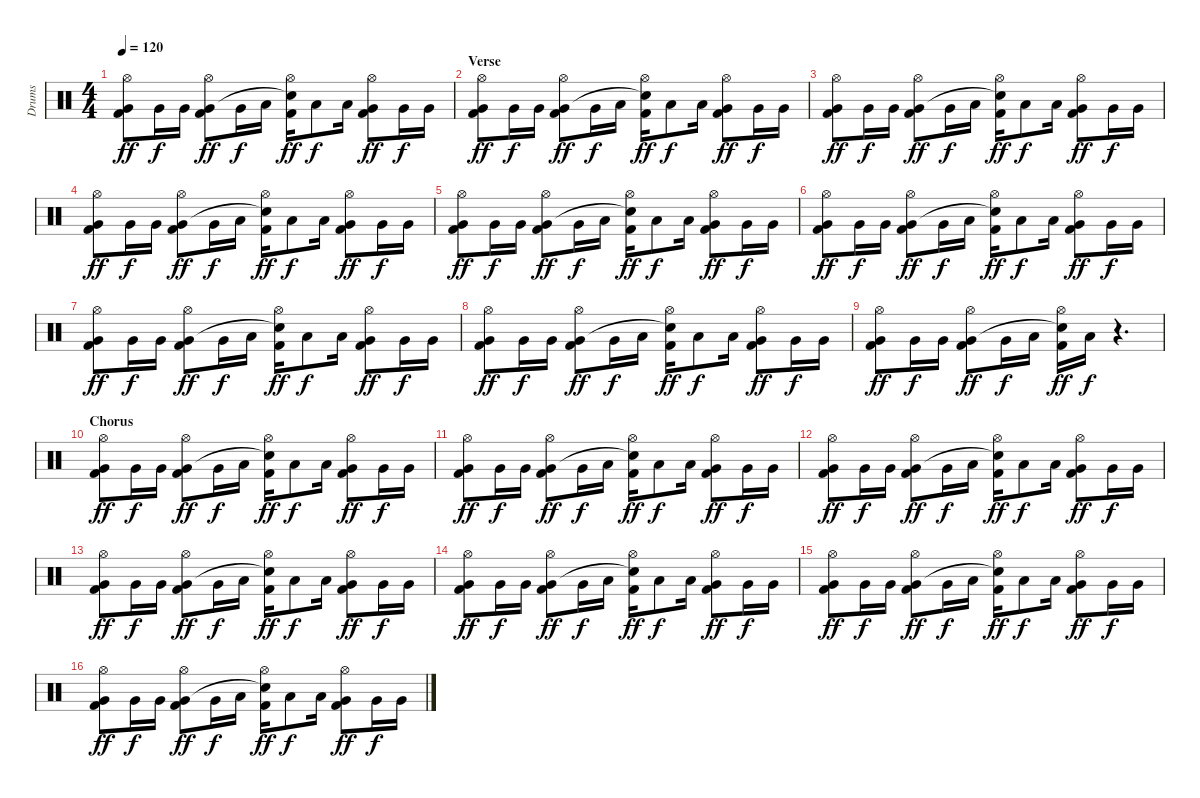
\track ("Drums" "Drums") {instrument percussion}
\staff {score}
\articulation defaults
\ts (4 4)
\tempo 120
\clef neutral
\ks c
("Hi-Hat (open)" "Very Low Tom (hit)" "Kick (hit) 2").8{dy ff} "Very Low Tom (hit)".16{dy f} "Very Low Tom (hit)".16 ("Hi-Hat (open)" "Very Low Tom (hit)" "Kick (hit) 2").8{dy ff} "Very Low Tom (hit)".16{dy f} "Low Tom (hit)".16 ("Hi-Hat (open)" "Snare (hit)"{t} "Kick (hit) 2").16{dy ff} "Low Tom (hit)".8{dy f} "Low Tom (hit)".16 ("Hi-Hat (open)" "Very Low Tom (hit)" "Kick (hit) 2").8{dy ff} "Very Low Tom (hit)".16{dy f} "Very Low Tom (hit)".16 |
\section ("" "Verse")
("Hi-Hat (open)" "Very Low Tom (hit)" "Kick (hit) 2").8{dy ff} "Very Low Tom (hit)".16{dy f} "Very Low Tom (hit)".16 ("Hi-Hat (open)" "Very Low Tom (hit)" "Kick (hit) 2").8{dy ff} "Very Low Tom (hit)".16{dy f} "Low Tom (hit)".16 ("Hi-Hat (open)" "Snare (hit)"{t} "Kick (hit) 2").16{dy ff} "Low Tom (hit)".8{dy f} "Low Tom (hit)".16 ("Hi-Hat (open)" "Very Low Tom (hit)" "Kick (hit) 2").8{dy ff} "Very Low Tom (hit)".16{dy f} "Very Low Tom (hit)".16 |
("Hi-Hat (open)" "Very Low Tom (hit)" "Kick (hit) 2").8{dy ff} "Very Low Tom (hit)".16{dy f} "Very Low Tom (hit)".16 ("Hi-Hat (open)" "Very Low Tom (hit)" "Kick (hit) 2").8{dy ff} "Very Low Tom (hit)".16{dy f} "Low Tom (hit)".16 ("Hi-Hat (open)" "Snare (hit)"{t} "Kick (hit) 2").16{dy ff} "Low Tom (hit)".8{dy f} "Low Tom (hit)".16 ("Hi-Hat (open)" "Very Low Tom (hit)" "Kick (hit) 2").8{dy ff} "Very Low Tom (hit)".16{dy f} "Very Low Tom (hit)".16 |
("Hi-Hat (open)" "Very Low Tom (hit)" "Kick (hit) 2").8{dy ff} "Very Low Tom (hit)".16{dy f} "Very Low Tom (hit)".16 ("Hi-Hat (open)" "Very Low Tom (hit)" "Kick (hit) 2").8{dy ff} "Very Low Tom (hit)".16{dy f} "Low Tom (hit)".16 ("Hi-Hat (open)" "Snare (hit)"{t} "Kick (hit) 2").16{dy ff} "Low Tom (hit)".8{dy f} "Low Tom (hit)".16 ("Hi-Hat (open)" "Very Low Tom (hit)" "Kick (hit) 2").8{dy ff} "Very Low Tom (hit)".16{dy f} "Very Low Tom (hit)".16 |
("Hi-Hat (open)" "Very Low Tom (hit)" "Kick (hit) 2").8{dy ff} "Very Low Tom (hit)".16{dy f} "Very Low Tom (hit)".16 ("Hi-Hat (open)" "Very Low Tom (hit)" "Kick (hit) 2").8{dy ff} "Very Low Tom (hit)".16{dy f} "Low Tom (hit)".16 ("Hi-Hat (open)" "Snare (hit)"{t} "Kick (hit) 2").16{dy ff} "Low Tom (hit)".8{dy f} "Low Tom (hit)".16 ("Hi-Hat (open)" "Very Low Tom (hit)" "Kick (hit) 2").8{dy ff} "Very Low Tom (hit)".16{dy f} "Very Low Tom (hit)".16 |
("Hi-Hat (open)" "Very Low Tom (hit)" "Kick (hit) 2").8{dy ff} "Very Low Tom (hit)".16{dy f} "Very Low Tom (hit)".16 ("Hi-Hat (open)" "Very Low Tom (hit)" "Kick (hit) 2").8{dy ff} "Very Low Tom (hit)".16{dy f} "Low Tom (hit)".16 ("Hi-Hat (open)" "Snare (hit)"{t} "Kick (hit) 2").16{dy ff} "Low Tom (hit)".8{dy f} "Low Tom (hit)".16 ("Hi-Hat (open)" "Very Low Tom (hit)" "Kick (hit) 2").8{dy ff} "Very Low Tom (hit)".16{dy f} "Very Low Tom (hit)".16 |
("Hi-Hat (open)" "Very Low Tom (hit)" "Kick (hit) 2").8{dy ff} "Very Low Tom (hit)".16{dy f} "Very Low Tom (hit)".16 ("Hi-Hat (open)" "Very Low Tom (hit)" "Kick (hit) 2").8{dy ff} "Very Low Tom (hit)".16{dy f} "Low Tom (hit)".16 ("Hi-Hat (open)" "Snare (hit)"{t} "Kick (hit) 2").16{dy ff} "Low Tom (hit)".8{dy f} "Low Tom (hit)".16 ("Hi-Hat (open)" "Very Low Tom (hit)" "Kick (hit) 2").8{dy ff} "Very Low Tom (hit)".16{dy f} "Very Low Tom (hit)".16 |
("Hi-Hat (open)" "Very Low Tom (hit)" "Kick (hit) 2").8{dy ff} "Very Low Tom (hit)".16{dy f} "Very Low Tom (hit)".16 ("Hi-Hat (open)" "Very Low Tom (hit)" "Kick (hit) 2").8{dy ff} "Very Low Tom (hit)".16{dy f} "Low Tom (hit)".16 ("Hi-Hat (open)" "Snare (hit)"{t} "Kick (hit) 2").16{dy ff} "Low Tom (hit)".8{dy f} "Low Tom (hit)".16 ("Hi-Hat (open)" "Very Low Tom (hit)" "Kick (hit) 2").8{dy ff} "Very Low Tom (hit)".16{dy f} "Very Low Tom (hit)".16 |
("Hi-Hat (open)" "Very Low Tom (hit)" "Kick (hit) 2").8{dy ff} "Very Low Tom (hit)".16{dy f} "Very Low Tom (hit)".16 ("Hi-Hat (open)" "Very Low Tom (hit)" "Kick (hit) 2").8{dy ff} "Very Low Tom (hit)".16{dy f} "Low Tom (hit)".16 ("Hi-Hat (open)" "Snare (hit)"{t} "Kick (hit) 2").16{dy ff} "Low Tom (hit)".16{dy f} r.4{d} |
\section ("" "Chorus")
("Hi-Hat (open)" "Very Low Tom (hit)" "Kick (hit) 2").8{dy ff} "Very Low Tom (hit)".16{dy f} "Very Low Tom (hit)".16 ("Hi-Hat (open)" "Very Low Tom (hit)" "Kick (hit) 2").8{dy ff} "Very Low Tom (hit)".16{dy f} "Low Tom (hit)".16 ("Hi-Hat (open)" "Snare (hit)"{t} "Kick (hit) 2").16{dy ff} "Low Tom (hit)".8{dy f} "Low Tom (hit)".16 ("Hi-Hat (open)" "Very Low Tom (hit)" "Kick (hit) 2").8{dy ff} "Very Low Tom (hit)".16{dy f} "Very Low Tom (hit)".16 |
("Hi-Hat (open)" "Very Low Tom (hit)" "Kick (hit) 2").8{dy ff} "Very Low Tom (hit)".16{dy f} "Very Low Tom (hit)".16 ("Hi-Hat (open)" "Very Low Tom (hit)" "Kick (hit) 2").8{dy ff} "Very Low Tom (hit)".16{dy f} "Low Tom (hit)".16 ("Hi-Hat (open)" "Snare (hit)"{t} "Kick (hit) 2").16{dy ff} "Low Tom (hit)".8{dy f} "Low Tom (hit)".16 ("Hi-Hat (open)" "Very Low Tom (hit)" "Kick (hit) 2").8{dy ff} "Very Low Tom (hit)".16{dy f} "Very Low Tom (hit)".16 |
("Hi-Hat (open)" "Very Low Tom (hit)" "Kick (hit) 2").8{dy ff} "Very Low Tom (hit)".16{dy f} "Very Low Tom (hit)".16 ("Hi-Hat (open)" "Very Low Tom (hit)" "Kick (hit) 2").8{dy ff} "Very Low Tom (hit)".16{dy f} "Low Tom (hit)".16 ("Hi-Hat (open)" "Snare (hit)"{t} "Kick (hit) 2").16{dy ff} "Low Tom (hit)".8{dy f} "Low Tom (hit)".16 ("Hi-Hat (open)" "Very Low Tom (hit)" "Kick (hit) 2").8{dy ff} "Very Low Tom (hit)".16{dy f} "Very Low Tom (hit)".16 |
("Hi-Hat (open)" "Very Low Tom (hit)" "Kick (hit) 2").8{dy ff} "Very Low Tom (hit)".16{dy f} "Very Low Tom (hit)".16 ("Hi-Hat (open)" "Very Low Tom (hit)" "Kick (hit) 2").8{dy ff} "Very Low Tom (hit)".16{dy f} "Low Tom (hit)".16 ("Hi-Hat (open)" "Snare (hit)"{t} "Kick (hit) 2").16{dy ff} "Low Tom (hit)".8{dy f} "Low Tom (hit)".16 ("Hi-Hat (open)" "Very Low Tom (hit)" "Kick (hit) 2").8{dy ff} "Very Low Tom (hit)".16{dy f} "Very Low Tom (hit)".16 |
("Hi-Hat (open)" "Very Low Tom (hit)" "Kick (hit) 2").8{dy ff} "Very Low Tom (hit)".16{dy f} "Very Low Tom (hit)".16 ("Hi-Hat (open)" "Very Low Tom (hit)" "Kick (hit) 2").8{dy ff} "Very Low Tom (hit)".16{dy f} "Low Tom (hit)".16 ("Hi-Hat (open)" "Snare (hit)"{t} "Kick (hit) 2").16{dy ff} "Low Tom (hit)".8{dy f} "Low Tom (hit)".16 ("Hi-Hat (open)" "Very Low Tom (hit)" "Kick (hit) 2").8{dy ff} "Very Low Tom (hit)".16{dy f} "Very Low Tom (hit)".16 |
("Hi-Hat (open)" "Very Low Tom (hit)" "Kick (hit) 2").8{dy ff} "Very Low Tom (hit)".16{dy f} "Very Low Tom (hit)".16 ("Hi-Hat (open)" "Very Low Tom (hit)" "Kick (hit) 2").8{dy ff} "Very Low Tom (hit)".16{dy f} "Low Tom (hit)".16 ("Hi-Hat (open)" "Snare (hit)"{t} "Kick (hit) 2").16{dy ff} "Low Tom (hit)".8{dy f} "Low Tom (hit)".16 ("Hi-Hat (open)" "Very Low Tom (hit)" "Kick (hit) 2").8{dy ff} "Very Low Tom (hit)".16{dy f} "Very Low Tom (hit)".16 |
("Hi-Hat (open)" "Very Low Tom (hit)" "Kick (hit) 2").8{dy ff} "Very Low Tom (hit)".16{dy f} "Very Low Tom (hit)".16 ("Hi-Hat (open)" "Very Low Tom (hit)" "Kick (hit) 2").8{dy ff} "Very Low Tom (hit)".16{dy f} "Low Tom (hit)".16 ("Hi-Hat (open)" "Snare (hit)"{t} "Kick (hit) 2").16{dy ff} "Low Tom (hit)".8{dy f} "Low Tom (hit)".16 ("Hi-Hat (open)" "Very Low Tom (hit)" "Kick (hit) 2").8{dy ff} "Very Low Tom (hit)".16{dy f} "Very Low Tom (hit)".16
